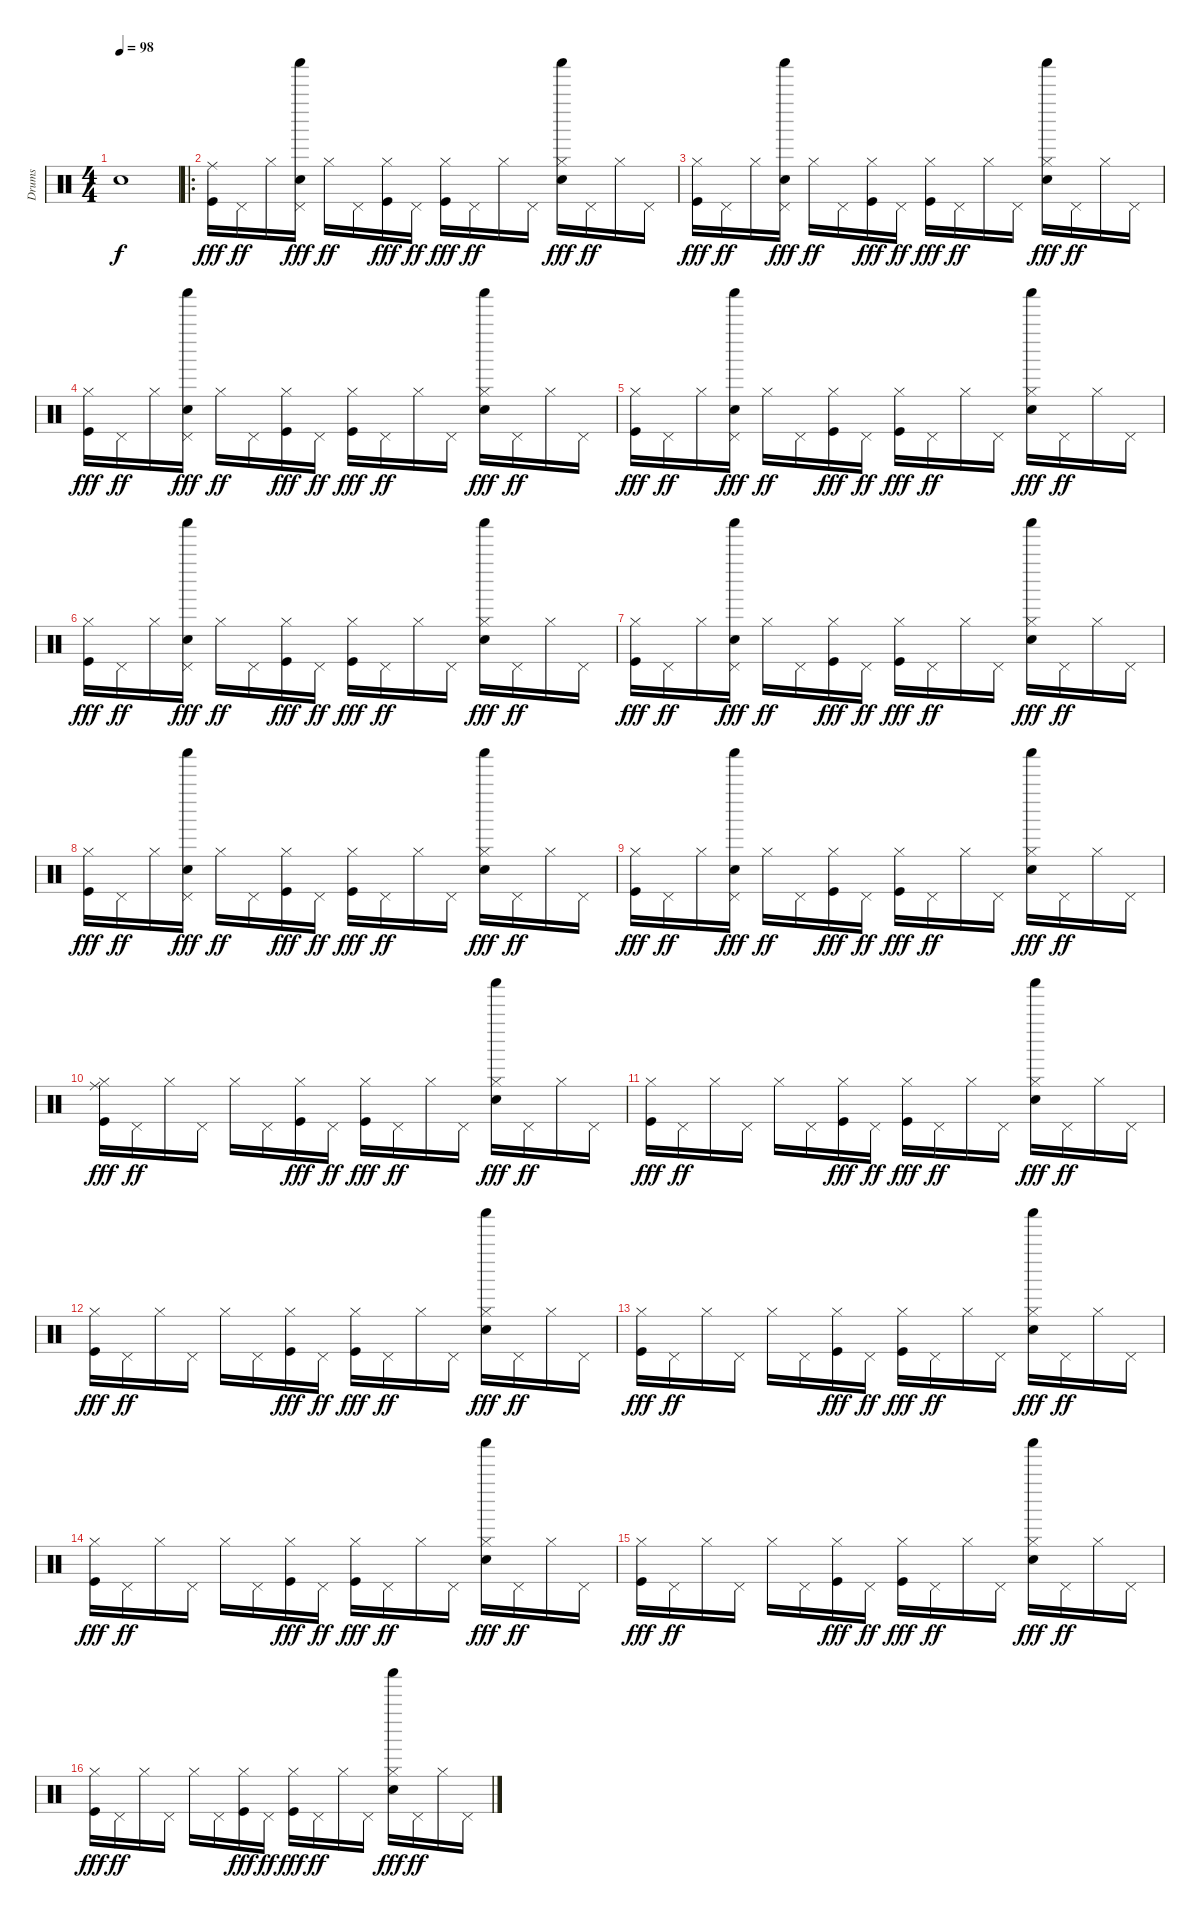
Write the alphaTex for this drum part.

\track ("Drums" "Drums") {instrument percussion}
\staff {score}
\articulation defaults
\ts (4 4)
\tempo 98
\clef neutral
\ks c "Snare (hit)"{t}.1{dy f}
|
\ro
("Kick (hit)" "Ride (middle)").16{dy fff volume 16} "Pedal Hi-Hat (hit)".16{dy ff} "Hi-Hat (closed)".16 ("Pedal Hi-Hat (hit)" "Shaker (hit)" "Electric Snare (hit)").16{dy fff} "Hi-Hat (closed)".16{dy ff} "Pedal Hi-Hat (hit)".16 ("Hi-Hat (closed)" "Kick (hit)").16{dy fff} "Pedal Hi-Hat (hit)".16{dy ff} ("Hi-Hat (closed)" "Kick (hit)").16{dy fff} "Pedal Hi-Hat (hit)".16{dy ff} "Hi-Hat (closed)".16 "Pedal Hi-Hat (hit)".16 ("Hi-Hat (closed)" "Shaker (hit)" "Electric Snare (hit)").16{dy fff} "Pedal Hi-Hat (hit)".16{dy ff} "Hi-Hat (closed)".16 "Pedal Hi-Hat (hit)".16 |
("Hi-Hat (closed)" "Kick (hit)").16{dy fff} "Pedal Hi-Hat (hit)".16{dy ff} "Hi-Hat (closed)".16 ("Pedal Hi-Hat (hit)" "Shaker (hit)" "Electric Snare (hit)").16{dy fff} "Hi-Hat (closed)".16{dy ff} "Pedal Hi-Hat (hit)".16 ("Hi-Hat (closed)" "Kick (hit)").16{dy fff} "Pedal Hi-Hat (hit)".16{dy ff} ("Hi-Hat (closed)" "Kick (hit)").16{dy fff} "Pedal Hi-Hat (hit)".16{dy ff} "Hi-Hat (closed)".16 "Pedal Hi-Hat (hit)".16 ("Hi-Hat (closed)" "Shaker (hit)" "Electric Snare (hit)").16{dy fff} "Pedal Hi-Hat (hit)".16{dy ff} "Hi-Hat (closed)".16 "Pedal Hi-Hat (hit)".16 |
("Hi-Hat (closed)" "Kick (hit)").16{dy fff} "Pedal Hi-Hat (hit)".16{dy ff} "Hi-Hat (closed)".16 ("Pedal Hi-Hat (hit)" "Shaker (hit)" "Electric Snare (hit)").16{dy fff} "Hi-Hat (closed)".16{dy ff} "Pedal Hi-Hat (hit)".16 ("Hi-Hat (closed)" "Kick (hit)").16{dy fff} "Pedal Hi-Hat (hit)".16{dy ff} ("Hi-Hat (closed)" "Kick (hit)").16{dy fff} "Pedal Hi-Hat (hit)".16{dy ff} "Hi-Hat (closed)".16 "Pedal Hi-Hat (hit)".16 ("Hi-Hat (closed)" "Shaker (hit)" "Electric Snare (hit)").16{dy fff} "Pedal Hi-Hat (hit)".16{dy ff} "Hi-Hat (closed)".16 "Pedal Hi-Hat (hit)".16 |
("Hi-Hat (closed)" "Kick (hit)").16{dy fff} "Pedal Hi-Hat (hit)".16{dy ff} "Hi-Hat (closed)".16 ("Pedal Hi-Hat (hit)" "Shaker (hit)" "Electric Snare (hit)").16{dy fff} "Hi-Hat (closed)".16{dy ff} "Pedal Hi-Hat (hit)".16 ("Hi-Hat (closed)" "Kick (hit)").16{dy fff} "Pedal Hi-Hat (hit)".16{dy ff} ("Hi-Hat (closed)" "Kick (hit)").16{dy fff} "Pedal Hi-Hat (hit)".16{dy ff} "Hi-Hat (closed)".16 "Pedal Hi-Hat (hit)".16 ("Hi-Hat (closed)" "Shaker (hit)" "Electric Snare (hit)").16{dy fff} "Pedal Hi-Hat (hit)".16{dy ff} "Hi-Hat (closed)".16 "Pedal Hi-Hat (hit)".16 |
("Hi-Hat (closed)" "Kick (hit)").16{dy fff} "Pedal Hi-Hat (hit)".16{dy ff} "Hi-Hat (closed)".16 ("Pedal Hi-Hat (hit)" "Shaker (hit)" "Electric Snare (hit)").16{dy fff} "Hi-Hat (closed)".16{dy ff} "Pedal Hi-Hat (hit)".16 ("Hi-Hat (closed)" "Kick (hit)").16{dy fff} "Pedal Hi-Hat (hit)".16{dy ff} ("Hi-Hat (closed)" "Kick (hit)").16{dy fff} "Pedal Hi-Hat (hit)".16{dy ff} "Hi-Hat (closed)".16 "Pedal Hi-Hat (hit)".16 ("Hi-Hat (closed)" "Shaker (hit)" "Electric Snare (hit)").16{dy fff} "Pedal Hi-Hat (hit)".16{dy ff} "Hi-Hat (closed)".16 "Pedal Hi-Hat (hit)".16 |
("Hi-Hat (closed)" "Kick (hit)").16{dy fff} "Pedal Hi-Hat (hit)".16{dy ff} "Hi-Hat (closed)".16 ("Pedal Hi-Hat (hit)" "Shaker (hit)" "Electric Snare (hit)").16{dy fff} "Hi-Hat (closed)".16{dy ff} "Pedal Hi-Hat (hit)".16 ("Hi-Hat (closed)" "Kick (hit)").16{dy fff} "Pedal Hi-Hat (hit)".16{dy ff} ("Hi-Hat (closed)" "Kick (hit)").16{dy fff} "Pedal Hi-Hat (hit)".16{dy ff} "Hi-Hat (closed)".16 "Pedal Hi-Hat (hit)".16 ("Hi-Hat (closed)" "Shaker (hit)" "Electric Snare (hit)").16{dy fff} "Pedal Hi-Hat (hit)".16{dy ff} "Hi-Hat (closed)".16 "Pedal Hi-Hat (hit)".16 |
("Hi-Hat (closed)" "Kick (hit)").16{dy fff} "Pedal Hi-Hat (hit)".16{dy ff} "Hi-Hat (closed)".16 ("Pedal Hi-Hat (hit)" "Shaker (hit)" "Electric Snare (hit)").16{dy fff} "Hi-Hat (closed)".16{dy ff} "Pedal Hi-Hat (hit)".16 ("Hi-Hat (closed)" "Kick (hit)").16{dy fff} "Pedal Hi-Hat (hit)".16{dy ff} ("Hi-Hat (closed)" "Kick (hit)").16{dy fff} "Pedal Hi-Hat (hit)".16{dy ff} "Hi-Hat (closed)".16 "Pedal Hi-Hat (hit)".16 ("Hi-Hat (closed)" "Shaker (hit)" "Electric Snare (hit)").16{dy fff} "Pedal Hi-Hat (hit)".16{dy ff} "Hi-Hat (closed)".16 "Pedal Hi-Hat (hit)".16 |
("Hi-Hat (closed)" "Kick (hit)").16{dy fff} "Pedal Hi-Hat (hit)".16{dy ff} "Hi-Hat (closed)".16 ("Pedal Hi-Hat (hit)" "Shaker (hit)" "Electric Snare (hit)").16{dy fff} "Hi-Hat (closed)".16{dy ff} "Pedal Hi-Hat (hit)".16 ("Hi-Hat (closed)" "Kick (hit)").16{dy fff} "Pedal Hi-Hat (hit)".16{dy ff} ("Hi-Hat (closed)" "Kick (hit)").16{dy fff} "Pedal Hi-Hat (hit)".16{dy ff} "Hi-Hat (closed)".16 "Pedal Hi-Hat (hit)".16 ("Hi-Hat (closed)" "Shaker (hit)" "Electric Snare (hit)").16{dy fff} "Pedal Hi-Hat (hit)".16{dy ff} "Hi-Hat (closed)".16 "Pedal Hi-Hat (hit)".16 |
("Hi-Hat (closed)" "Kick (hit)" "Ride (middle)").16{dy fff} "Pedal Hi-Hat (hit)".16{dy ff} "Hi-Hat (closed)".16 "Pedal Hi-Hat (hit)".16 "Hi-Hat (closed)".16 "Pedal Hi-Hat (hit)".16 ("Hi-Hat (closed)" "Kick (hit)").16{dy fff} "Pedal Hi-Hat (hit)".16{dy ff} ("Hi-Hat (closed)" "Kick (hit)").16{dy fff} "Pedal Hi-Hat (hit)".16{dy ff} "Hi-Hat (closed)".16 "Pedal Hi-Hat (hit)".16 ("Hi-Hat (closed)" "Shaker (hit)" "Electric Snare (hit)").16{dy fff} "Pedal Hi-Hat (hit)".16{dy ff} "Hi-Hat (closed)".16 "Pedal Hi-Hat (hit)".16 |
("Hi-Hat (closed)" "Kick (hit)").16{dy fff} "Pedal Hi-Hat (hit)".16{dy ff} "Hi-Hat (closed)".16 "Pedal Hi-Hat (hit)".16 "Hi-Hat (closed)".16 "Pedal Hi-Hat (hit)".16 ("Hi-Hat (closed)" "Kick (hit)").16{dy fff} "Pedal Hi-Hat (hit)".16{dy ff} ("Hi-Hat (closed)" "Kick (hit)").16{dy fff} "Pedal Hi-Hat (hit)".16{dy ff} "Hi-Hat (closed)".16 "Pedal Hi-Hat (hit)".16 ("Hi-Hat (closed)" "Shaker (hit)" "Electric Snare (hit)").16{dy fff} "Pedal Hi-Hat (hit)".16{dy ff} "Hi-Hat (closed)".16 "Pedal Hi-Hat (hit)".16 |
("Hi-Hat (closed)" "Kick (hit)").16{dy fff} "Pedal Hi-Hat (hit)".16{dy ff} "Hi-Hat (closed)".16 "Pedal Hi-Hat (hit)".16 "Hi-Hat (closed)".16 "Pedal Hi-Hat (hit)".16 ("Hi-Hat (closed)" "Kick (hit)").16{dy fff} "Pedal Hi-Hat (hit)".16{dy ff} ("Hi-Hat (closed)" "Kick (hit)").16{dy fff} "Pedal Hi-Hat (hit)".16{dy ff} "Hi-Hat (closed)".16 "Pedal Hi-Hat (hit)".16 ("Hi-Hat (closed)" "Shaker (hit)" "Electric Snare (hit)").16{dy fff} "Pedal Hi-Hat (hit)".16{dy ff} "Hi-Hat (closed)".16 "Pedal Hi-Hat (hit)".16 |
("Hi-Hat (closed)" "Kick (hit)").16{dy fff} "Pedal Hi-Hat (hit)".16{dy ff} "Hi-Hat (closed)".16 "Pedal Hi-Hat (hit)".16 "Hi-Hat (closed)".16 "Pedal Hi-Hat (hit)".16 ("Hi-Hat (closed)" "Kick (hit)").16{dy fff} "Pedal Hi-Hat (hit)".16{dy ff} ("Hi-Hat (closed)" "Kick (hit)").16{dy fff} "Pedal Hi-Hat (hit)".16{dy ff} "Hi-Hat (closed)".16 "Pedal Hi-Hat (hit)".16 ("Hi-Hat (closed)" "Shaker (hit)" "Electric Snare (hit)").16{dy fff} "Pedal Hi-Hat (hit)".16{dy ff} "Hi-Hat (closed)".16 "Pedal Hi-Hat (hit)".16 |
("Hi-Hat (closed)" "Kick (hit)").16{dy fff} "Pedal Hi-Hat (hit)".16{dy ff} "Hi-Hat (closed)".16 "Pedal Hi-Hat (hit)".16 "Hi-Hat (closed)".16 "Pedal Hi-Hat (hit)".16 ("Hi-Hat (closed)" "Kick (hit)").16{dy fff} "Pedal Hi-Hat (hit)".16{dy ff} ("Hi-Hat (closed)" "Kick (hit)").16{dy fff} "Pedal Hi-Hat (hit)".16{dy ff} "Hi-Hat (closed)".16 "Pedal Hi-Hat (hit)".16 ("Hi-Hat (closed)" "Shaker (hit)" "Electric Snare (hit)").16{dy fff} "Pedal Hi-Hat (hit)".16{dy ff} "Hi-Hat (closed)".16 "Pedal Hi-Hat (hit)".16 |
("Hi-Hat (closed)" "Kick (hit)").16{dy fff} "Pedal Hi-Hat (hit)".16{dy ff} "Hi-Hat (closed)".16 "Pedal Hi-Hat (hit)".16 "Hi-Hat (closed)".16 "Pedal Hi-Hat (hit)".16 ("Hi-Hat (closed)" "Kick (hit)").16{dy fff} "Pedal Hi-Hat (hit)".16{dy ff} ("Hi-Hat (closed)" "Kick (hit)").16{dy fff} "Pedal Hi-Hat (hit)".16{dy ff} "Hi-Hat (closed)".16 "Pedal Hi-Hat (hit)".16 ("Hi-Hat (closed)" "Shaker (hit)" "Electric Snare (hit)").16{dy fff} "Pedal Hi-Hat (hit)".16{dy ff} "Hi-Hat (closed)".16 "Pedal Hi-Hat (hit)".16 |
("Hi-Hat (closed)" "Kick (hit)").16{dy fff} "Pedal Hi-Hat (hit)".16{dy ff} "Hi-Hat (closed)".16 "Pedal Hi-Hat (hit)".16 "Hi-Hat (closed)".16 "Pedal Hi-Hat (hit)".16 ("Hi-Hat (closed)" "Kick (hit)").16{dy fff} "Pedal Hi-Hat (hit)".16{dy ff} ("Hi-Hat (closed)" "Kick (hit)").16{dy fff} "Pedal Hi-Hat (hit)".16{dy ff} "Hi-Hat (closed)".16 "Pedal Hi-Hat (hit)".16 ("Hi-Hat (closed)" "Shaker (hit)" "Electric Snare (hit)").16{dy fff} "Pedal Hi-Hat (hit)".16{dy ff} "Hi-Hat (closed)".16 "Pedal Hi-Hat (hit)".16
